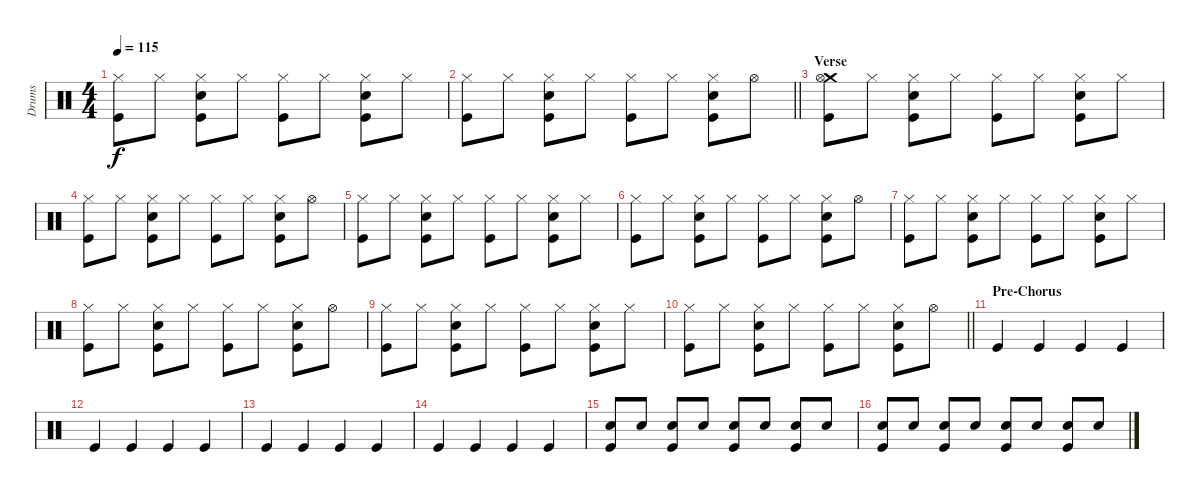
\track ("Drums" "Drums") {instrument percussion}
\staff {score}
\articulation defaults
\ts (4 4)
\tempo 115
\clef neutral
\ks c
("Hi-Hat (closed)" "Kick (hit)").8{dy f} "Hi-Hat (closed)".8 ("Hi-Hat (closed)" "Snare (hit) 2" "Kick (hit)").8 "Hi-Hat (closed)".8 ("Hi-Hat (closed)" "Kick (hit)").8 "Hi-Hat (closed)".8 ("Hi-Hat (closed)" "Snare (hit) 2" "Kick (hit)").8 "Hi-Hat (closed)".8 |
\barLineRight lightlight
("Hi-Hat (closed)" "Kick (hit)").8 "Hi-Hat (closed)".8 ("Hi-Hat (closed)" "Snare (hit) 2" "Kick (hit)").8 "Hi-Hat (closed)".8 ("Hi-Hat (closed)" "Kick (hit)").8 "Hi-Hat (closed)".8 ("Hi-Hat (closed)" "Snare (hit) 2" "Kick (hit)").8 "Hi-Hat (open)".8 |
\section ("" "Verse")
("Crash medium (hit)" "Hi-Hat (open)" "Kick (hit)").8 "Hi-Hat (closed)".8 ("Hi-Hat (closed)" "Snare (hit) 2" "Kick (hit)").8 "Hi-Hat (closed)".8 ("Hi-Hat (closed)" "Kick (hit)").8 "Hi-Hat (closed)".8 ("Hi-Hat (closed)" "Snare (hit) 2" "Kick (hit)").8 "Hi-Hat (closed)".8 |
("Hi-Hat (closed)" "Kick (hit)").8 "Hi-Hat (closed)".8 ("Hi-Hat (closed)" "Snare (hit) 2" "Kick (hit)").8 "Hi-Hat (closed)".8 ("Hi-Hat (closed)" "Kick (hit)").8 "Hi-Hat (closed)".8 ("Hi-Hat (closed)" "Snare (hit) 2" "Kick (hit)").8 "Hi-Hat (open)".8 |
("Hi-Hat (closed)" "Kick (hit)").8 "Hi-Hat (closed)".8 ("Hi-Hat (closed)" "Snare (hit) 2" "Kick (hit)").8 "Hi-Hat (closed)".8 ("Hi-Hat (closed)" "Kick (hit)").8 "Hi-Hat (closed)".8 ("Hi-Hat (closed)" "Snare (hit) 2" "Kick (hit)").8 "Hi-Hat (closed)".8 |
("Hi-Hat (closed)" "Kick (hit)").8 "Hi-Hat (closed)".8 ("Hi-Hat (closed)" "Snare (hit) 2" "Kick (hit)").8 "Hi-Hat (closed)".8 ("Hi-Hat (closed)" "Kick (hit)").8 "Hi-Hat (closed)".8 ("Hi-Hat (closed)" "Snare (hit) 2" "Kick (hit)").8 "Hi-Hat (open)".8 |
("Hi-Hat (closed)" "Kick (hit)").8 "Hi-Hat (closed)".8 ("Hi-Hat (closed)" "Snare (hit) 2" "Kick (hit)").8 "Hi-Hat (closed)".8 ("Hi-Hat (closed)" "Kick (hit)").8 "Hi-Hat (closed)".8 ("Hi-Hat (closed)" "Snare (hit) 2" "Kick (hit)").8 "Hi-Hat (closed)".8 |
("Hi-Hat (closed)" "Kick (hit)").8 "Hi-Hat (closed)".8 ("Hi-Hat (closed)" "Snare (hit) 2" "Kick (hit)").8 "Hi-Hat (closed)".8 ("Hi-Hat (closed)" "Kick (hit)").8 "Hi-Hat (closed)".8 ("Hi-Hat (closed)" "Snare (hit) 2" "Kick (hit)").8 "Hi-Hat (open)".8 |
("Hi-Hat (closed)" "Kick (hit)").8 "Hi-Hat (closed)".8 ("Hi-Hat (closed)" "Snare (hit) 2" "Kick (hit)").8 "Hi-Hat (closed)".8 ("Hi-Hat (closed)" "Kick (hit)").8 "Hi-Hat (closed)".8 ("Hi-Hat (closed)" "Snare (hit) 2" "Kick (hit)").8 "Hi-Hat (closed)".8 |
\barLineRight lightlight
("Hi-Hat (closed)" "Kick (hit)").8 "Hi-Hat (closed)".8 ("Hi-Hat (closed)" "Snare (hit) 2" "Kick (hit)").8 "Hi-Hat (closed)".8 ("Hi-Hat (closed)" "Kick (hit)").8 "Hi-Hat (closed)".8 ("Hi-Hat (closed)" "Snare (hit) 2" "Kick (hit)").8 "Hi-Hat (open)".8 |
\section ("" "Pre-Chorus")
"Kick (hit)".4 "Kick (hit)".4 "Kick (hit)".4 "Kick (hit)".4 |
"Kick (hit)".4 "Kick (hit)".4 "Kick (hit)".4 "Kick (hit)".4 |
"Kick (hit)".4 "Kick (hit)".4 "Kick (hit)".4 "Kick (hit)".4 |
"Kick (hit)".4 "Kick (hit)".4 "Kick (hit)".4 "Kick (hit)".4 |
("Snare (hit) 2" "Kick (hit)").8 "Snare (hit) 2".8 ("Snare (hit) 2" "Kick (hit)").8 "Snare (hit) 2".8 ("Snare (hit) 2" "Kick (hit)").8 "Snare (hit) 2".8 ("Snare (hit) 2" "Kick (hit)").8 "Snare (hit) 2".8 |
("Snare (hit) 2" "Kick (hit)").8 "Snare (hit) 2".8 ("Snare (hit) 2" "Kick (hit)").8 "Snare (hit) 2".8 ("Snare (hit) 2" "Kick (hit)").8 "Snare (hit) 2".8 ("Snare (hit) 2" "Kick (hit)").8 "Snare (hit) 2".8
